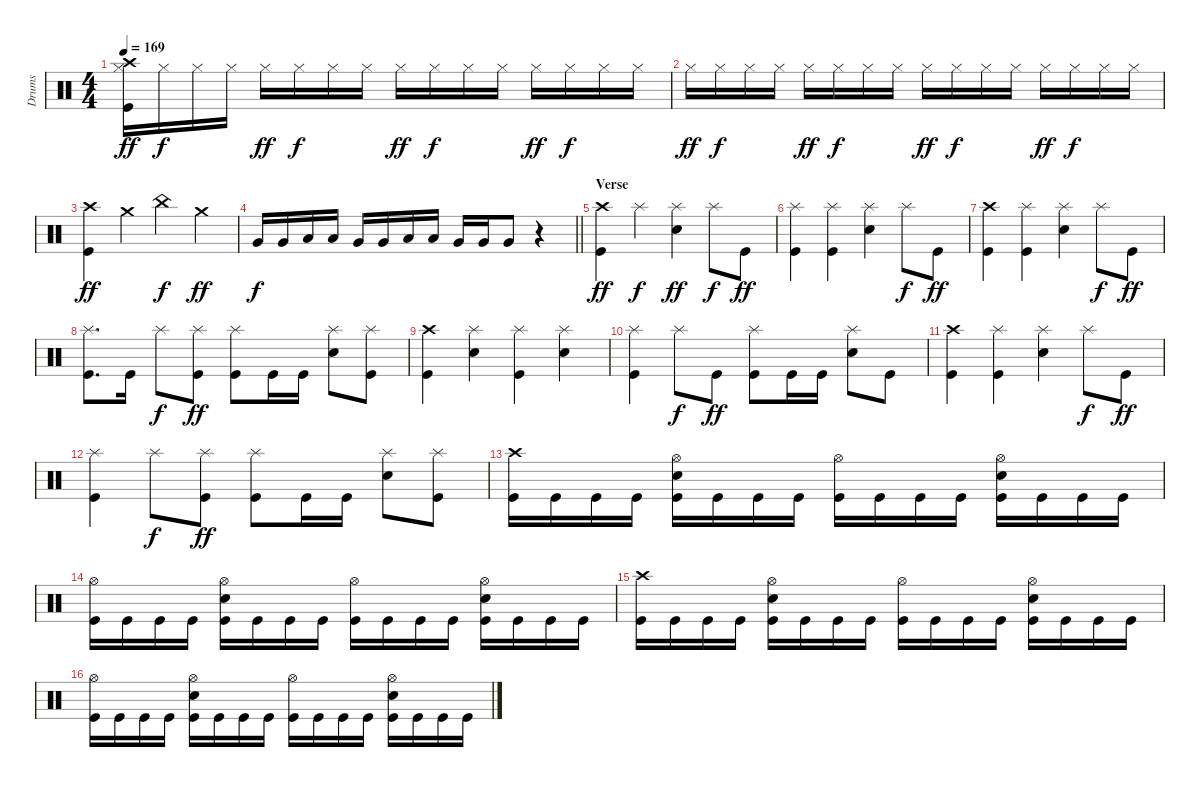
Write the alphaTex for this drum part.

\track ("Drums" "Drums") {instrument percussion}
\staff {score}
\articulation defaults
\ts (4 4)
\tempo 169
\clef neutral
\ks c
("Crash high (hit)" "Hi-Hat (closed)" "Kick (hit)").16{dy ff} "Hi-Hat (closed)".16{dy f} "Hi-Hat (closed)".16 "Hi-Hat (closed)".16 "Hi-Hat (closed)".16{dy ff} "Hi-Hat (closed)".16{dy f} "Hi-Hat (closed)".16 "Hi-Hat (closed)".16 "Hi-Hat (closed)".16{dy ff} "Hi-Hat (closed)".16{dy f} "Hi-Hat (closed)".16 "Hi-Hat (closed)".16 "Hi-Hat (closed)".16{dy ff} "Hi-Hat (closed)".16{dy f} "Hi-Hat (closed)".16 "Hi-Hat (closed)".16 |
"Hi-Hat (closed)".16{dy ff} "Hi-Hat (closed)".16{dy f} "Hi-Hat (closed)".16 "Hi-Hat (closed)".16 "Hi-Hat (closed)".16{dy ff} "Hi-Hat (closed)".16{dy f} "Hi-Hat (closed)".16 "Hi-Hat (closed)".16 "Hi-Hat (closed)".16{dy ff} "Hi-Hat (closed)".16{dy f} "Hi-Hat (closed)".16 "Hi-Hat (closed)".16 "Hi-Hat (closed)".16{dy ff} "Hi-Hat (closed)".16{dy f} "Hi-Hat (closed)".16 "Hi-Hat (closed)".16 |
("Crash high (hit)" "Kick (hit)").4{dy ff} "Crash medium (hit)".4 "China (hit)".4{dy f} "Crash medium (hit)".4{dy ff} |
\barLineRight lightlight "Very Low Tom (hit)".16{dy f} "Very Low Tom (hit)".16 "Low Floor Tom (hit)".16 "Low Floor Tom (hit)".16 "Very Low Tom (hit)".16 "Very Low Tom (hit)".16 "Low Floor Tom (hit)".16 "Low Floor Tom (hit)".16 "Very Low Tom (hit)".16 "Very Low Tom (hit)".16 "Very Low Tom (hit)".8
r.4 |
\section ("" "Verse")
("Crash high (hit)" "Kick (hit)").4{dy ff} "Splash (hit)".4{dy f} ("Splash (hit)" "Electric Snare (hit)").4{dy ff} "Splash (hit)".8{dy f} "Kick (hit)".8{dy ff} |
("Splash (hit)" "Kick (hit)").4 ("Splash (hit)" "Kick (hit)").4 ("Splash (hit)" "Electric Snare (hit)").4 "Splash (hit)".8{dy f} "Kick (hit)".8{dy ff} |
("Crash high (hit)" "Kick (hit)").4 ("Splash (hit)" "Kick (hit)").4 ("Splash (hit)" "Electric Snare (hit)").4 "Splash (hit)".8{dy f} "Kick (hit)".8{dy ff} |
("Splash (hit)" "Kick (hit)").8{d} "Kick (hit)".16 "Splash (hit)".8{dy f} ("Splash (hit)" "Kick (hit)").8{dy ff} ("Splash (hit)" "Kick (hit)").8 "Kick (hit)".16 "Kick (hit)".16 ("Splash (hit)" "Electric Snare (hit)").8 ("Splash (hit)" "Kick (hit)").8 |
("Crash high (hit)" "Kick (hit)").4 ("Splash (hit)" "Electric Snare (hit)").4 ("Splash (hit)" "Kick (hit)").4 ("Splash (hit)" "Electric Snare (hit)").4 |
("Splash (hit)" "Kick (hit)").4 "Splash (hit)".8{dy f} "Kick (hit)".8{dy ff} ("Splash (hit)" "Kick (hit)").8 "Kick (hit)".16 "Kick (hit)".16 ("Splash (hit)" "Electric Snare (hit)").8 "Kick (hit)".8 |
("Crash high (hit)" "Kick (hit)").4 ("Splash (hit)" "Kick (hit)").4 ("Splash (hit)" "Electric Snare (hit)").4 "Splash (hit)".8{dy f} "Kick (hit)".8{dy ff} |
("Splash (hit)" "Kick (hit)").4 "Splash (hit)".8{dy f} ("Splash (hit)" "Kick (hit)").8{dy ff} ("Splash (hit)" "Kick (hit)").8 "Kick (hit)".16 "Kick (hit)".16 ("Splash (hit)" "Electric Snare (hit)").8 ("Splash (hit)" "Kick (hit)").8 |
("Crash high (hit)" "Kick (hit)").16 "Kick (hit)".16 "Kick (hit)".16 "Kick (hit)".16 ("Hi-Hat (open)" "Electric Snare (hit)" "Kick (hit)").16 "Kick (hit)".16 "Kick (hit)".16 "Kick (hit)".16 ("Hi-Hat (open)" "Kick (hit)").16 "Kick (hit)".16 "Kick (hit)".16 "Kick (hit)".16 ("Hi-Hat (open)" "Electric Snare (hit)" "Kick (hit)").16 "Kick (hit)".16 "Kick (hit)".16 "Kick (hit)".16 |
("Hi-Hat (open)" "Kick (hit)").16 "Kick (hit)".16 "Kick (hit)".16 "Kick (hit)".16 ("Hi-Hat (open)" "Electric Snare (hit)" "Kick (hit)").16 "Kick (hit)".16 "Kick (hit)".16 "Kick (hit)".16 ("Hi-Hat (open)" "Kick (hit)").16 "Kick (hit)".16 "Kick (hit)".16 "Kick (hit)".16 ("Hi-Hat (open)" "Electric Snare (hit)" "Kick (hit)").16 "Kick (hit)".16 "Kick (hit)".16 "Kick (hit)".16 |
("Crash high (hit)" "Kick (hit)").16 "Kick (hit)".16 "Kick (hit)".16 "Kick (hit)".16 ("Hi-Hat (open)" "Electric Snare (hit)" "Kick (hit)").16 "Kick (hit)".16 "Kick (hit)".16 "Kick (hit)".16 ("Hi-Hat (open)" "Kick (hit)").16 "Kick (hit)".16 "Kick (hit)".16 "Kick (hit)".16 ("Hi-Hat (open)" "Electric Snare (hit)" "Kick (hit)").16 "Kick (hit)".16 "Kick (hit)".16 "Kick (hit)".16 |
("Hi-Hat (open)" "Kick (hit)").16 "Kick (hit)".16 "Kick (hit)".16 "Kick (hit)".16 ("Hi-Hat (open)" "Electric Snare (hit)" "Kick (hit)").16 "Kick (hit)".16 "Kick (hit)".16 "Kick (hit)".16 ("Hi-Hat (open)" "Kick (hit)").16 "Kick (hit)".16 "Kick (hit)".16 "Kick (hit)".16 ("Hi-Hat (open)" "Electric Snare (hit)" "Kick (hit)").16 "Kick (hit)".16 "Kick (hit)".16 "Kick (hit)".16
